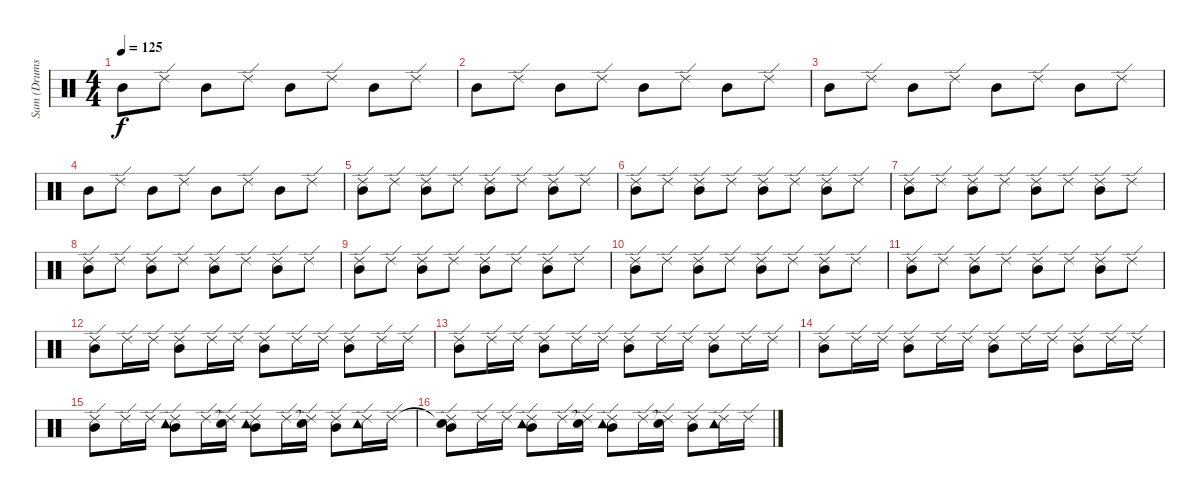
\track ("Sam (Drums)" "Sam (Drums") {instrument percussion}
\staff {score}
\articulation defaults
\ts (4 4)
\tempo 125
\clef neutral
\ks c "Mid Tom (hit)".8{dy f} "Ride (edge) 2".8 "Mid Tom (hit)".8 "Ride (edge) 2".8 "Mid Tom (hit)".8 "Ride (edge) 2".8 "Mid Tom (hit)".8 "Ride (edge) 2".8
|
"Mid Tom (hit)".8 "Ride (edge) 2".8 "Mid Tom (hit)".8 "Ride (edge) 2".8 "Mid Tom (hit)".8 "Ride (edge) 2".8 "Mid Tom (hit)".8 "Ride (edge) 2".8 |
"Mid Tom (hit)".8 "Ride (edge) 2".8 "Mid Tom (hit)".8 "Ride (edge) 2".8 "Mid Tom (hit)".8 "Ride (edge) 2".8 "Mid Tom (hit)".8 "Ride (edge) 2".8 |
"Mid Tom (hit)".8 "Ride (edge) 2".8 "Mid Tom (hit)".8 "Ride (edge) 2".8 "Mid Tom (hit)".8 "Ride (edge) 2".8 "Mid Tom (hit)".8 "Ride (edge) 2".8 |
("Ride (edge) 2" "Mid Tom (hit)").8 "Ride (edge) 2".8 ("Ride (edge) 2" "Mid Tom (hit)").8 "Ride (edge) 2".8 ("Ride (edge) 2" "Mid Tom (hit)").8 "Ride (edge) 2".8 ("Ride (edge) 2" "Mid Tom (hit)").8 "Ride (edge) 2".8 |
("Ride (edge) 2" "Mid Tom (hit)").8 "Ride (edge) 2".8 ("Ride (edge) 2" "Mid Tom (hit)").8 "Ride (edge) 2".8 ("Ride (edge) 2" "Mid Tom (hit)").8 "Ride (edge) 2".8 ("Ride (edge) 2" "Mid Tom (hit)").8 "Ride (edge) 2".8 |
("Ride (edge) 2" "Mid Tom (hit)").8 "Ride (edge) 2".8 ("Ride (edge) 2" "Mid Tom (hit)").8 "Ride (edge) 2".8 ("Ride (edge) 2" "Mid Tom (hit)").8 "Ride (edge) 2".8 ("Ride (edge) 2" "Mid Tom (hit)").8 "Ride (edge) 2".8 |
("Ride (edge) 2" "Mid Tom (hit)").8 "Ride (edge) 2".8 ("Ride (edge) 2" "Mid Tom (hit)").8 "Ride (edge) 2".8 ("Ride (edge) 2" "Mid Tom (hit)").8 "Ride (edge) 2".8 ("Ride (edge) 2" "Mid Tom (hit)").8 "Ride (edge) 2".8 |
("Ride (edge) 2" "Mid Tom (hit)").8 "Ride (edge) 2".8 ("Ride (edge) 2" "Mid Tom (hit)").8 "Ride (edge) 2".8 ("Ride (edge) 2" "Mid Tom (hit)").8 "Ride (edge) 2".8 ("Ride (edge) 2" "Mid Tom (hit)").8 "Ride (edge) 2".8 |
("Ride (edge) 2" "Mid Tom (hit)").8 "Ride (edge) 2".8 ("Ride (edge) 2" "Mid Tom (hit)").8 "Ride (edge) 2".8 ("Ride (edge) 2" "Mid Tom (hit)").8 "Ride (edge) 2".8 ("Ride (edge) 2" "Mid Tom (hit)").8 "Ride (edge) 2".8 |
("Ride (edge) 2" "Mid Tom (hit)").8 "Ride (edge) 2".8 ("Ride (edge) 2" "Mid Tom (hit)").8 "Ride (edge) 2".8 ("Ride (edge) 2" "Mid Tom (hit)").8 "Ride (edge) 2".8 ("Ride (edge) 2" "Mid Tom (hit)").8 "Ride (edge) 2".8 |
("Ride (edge) 2" "Mid Tom (hit)").8 "Ride (edge) 2".16 "Ride (edge) 2".16 ("Ride (edge) 2" "Mid Tom (hit)").8 "Ride (edge) 2".16 "Ride (edge) 2".16 ("Ride (edge) 2" "Mid Tom (hit)").8 "Ride (edge) 2".16 "Ride (edge) 2".16 ("Ride (edge) 2" "Mid Tom (hit)").8 "Ride (edge) 2".16 "Ride (edge) 2".16 |
("Ride (edge) 2" "Mid Tom (hit)").8 "Ride (edge) 2".16 "Ride (edge) 2".16 ("Ride (edge) 2" "Mid Tom (hit)").8 "Ride (edge) 2".16 "Ride (edge) 2".16 ("Ride (edge) 2" "Mid Tom (hit)").8 "Ride (edge) 2".16 "Ride (edge) 2".16 ("Ride (edge) 2" "Mid Tom (hit)").8 "Ride (edge) 2".16 "Ride (edge) 2".16 |
("Ride (edge) 2" "Mid Tom (hit)").8 "Ride (edge) 2".16 "Ride (edge) 2".16 ("Ride (edge) 2" "Mid Tom (hit)").8 "Ride (edge) 2".16 "Ride (edge) 2".16 ("Ride (edge) 2" "Mid Tom (hit)").8 "Ride (edge) 2".16 "Ride (edge) 2".16 ("Ride (edge) 2" "Mid Tom (hit)").8 "Ride (edge) 2".16 "Ride (edge) 2".16 |
("Ride (edge) 2" "Mid Tom (hit)").8 "Ride (edge) 2".16 "Ride (edge) 2".16 ("Tambourine (hit)" "Ride (edge) 2" "Mid Tom (hit)").8 "Ride (edge) 2".16 ("Snare (hit)"{t} "Ride (edge) 2").16 ("Tambourine (hit)" "Ride (edge) 2" "Mid Tom (hit)").8 "Ride (edge) 2".16 ("Snare (hit)"{t} "Ride (edge) 2").16 ("Ride (edge) 2" "Mid Tom (hit)").8 ("Tambourine (hit)" "Ride (edge) 2").16 "Ride (edge) 2".16 |
("Snare (hit)"{t} "Ride (edge) 2" "Mid Tom (hit)").8 "Ride (edge) 2".16 "Ride (edge) 2".16 ("Tambourine (hit)" "Ride (edge) 2" "Mid Tom (hit)").8 "Ride (edge) 2".16 ("Snare (hit)"{t} "Ride (edge) 2").16 ("Tambourine (hit)" "Ride (edge) 2" "Mid Tom (hit)").8 "Ride (edge) 2".16 ("Snare (hit)"{t} "Ride (edge) 2").16 ("Ride (edge) 2" "Mid Tom (hit)").8 ("Tambourine (hit)" "Ride (edge) 2").16 "Ride (edge) 2".16
